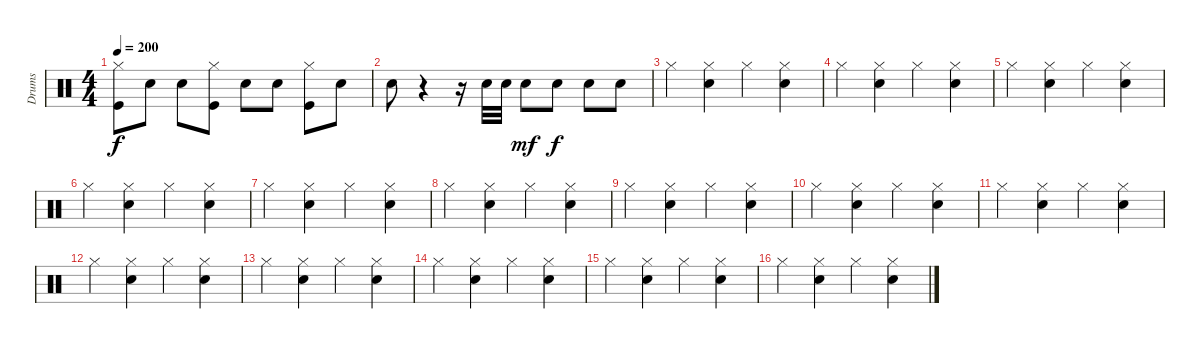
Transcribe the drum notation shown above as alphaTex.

\track ("Drums" "Drums") {instrument percussion}
\staff {score}
\articulation defaults
\ts (4 4)
\tempo 200
\clef neutral
\ks c
("Hi-Hat (closed)" "Kick (hit)").8{dy f} "Electric Snare (hit)".8 "Electric Snare (hit)".8 ("Hi-Hat (closed)" "Kick (hit)").8 "Electric Snare (hit)".8 "Electric Snare (hit)".8 ("Hi-Hat (closed)" "Kick (hit)").8 "Electric Snare (hit)".8 |
"Electric Snare (hit)".8 r.4 r.16 "Electric Snare (hit)".32 "Electric Snare (hit)".32 "Electric Snare (hit)".8{dy mf} "Electric Snare (hit)".8{dy f} "Electric Snare (hit)".8 "Electric Snare (hit)".8 |
"Hi-Hat (closed)".4 ("Snare (hit) 2" "Hi-Hat (closed)").4 "Hi-Hat (closed)".4 ("Snare (hit) 2" "Hi-Hat (closed)").4 |
"Hi-Hat (closed)".4 ("Snare (hit) 2" "Hi-Hat (closed)").4 "Hi-Hat (closed)".4 ("Snare (hit) 2" "Hi-Hat (closed)").4 |
"Hi-Hat (closed)".4 ("Snare (hit) 2" "Hi-Hat (closed)").4 "Hi-Hat (closed)".4 ("Snare (hit) 2" "Hi-Hat (closed)").4 |
"Hi-Hat (closed)".4 ("Snare (hit) 2" "Hi-Hat (closed)").4 "Hi-Hat (closed)".4 ("Snare (hit) 2" "Hi-Hat (closed)").4 |
"Hi-Hat (closed)".4 ("Snare (hit) 2" "Hi-Hat (closed)").4 "Hi-Hat (closed)".4 ("Snare (hit) 2" "Hi-Hat (closed)").4 |
"Hi-Hat (closed)".4 ("Snare (hit) 2" "Hi-Hat (closed)").4 "Hi-Hat (closed)".4 ("Snare (hit) 2" "Hi-Hat (closed)").4 |
"Hi-Hat (closed)".4 ("Snare (hit) 2" "Hi-Hat (closed)").4 "Hi-Hat (closed)".4 ("Snare (hit) 2" "Hi-Hat (closed)").4 |
"Hi-Hat (closed)".4 ("Snare (hit) 2" "Hi-Hat (closed)").4 "Hi-Hat (closed)".4 ("Snare (hit) 2" "Hi-Hat (closed)").4 |
"Hi-Hat (closed)".4 ("Snare (hit) 2" "Hi-Hat (closed)").4 "Hi-Hat (closed)".4 ("Snare (hit) 2" "Hi-Hat (closed)").4 |
"Hi-Hat (closed)".4 ("Snare (hit) 2" "Hi-Hat (closed)").4 "Hi-Hat (closed)".4 ("Snare (hit) 2" "Hi-Hat (closed)").4 |
"Hi-Hat (closed)".4 ("Snare (hit) 2" "Hi-Hat (closed)").4 "Hi-Hat (closed)".4 ("Snare (hit) 2" "Hi-Hat (closed)").4 |
"Hi-Hat (closed)".4 ("Snare (hit) 2" "Hi-Hat (closed)").4 "Hi-Hat (closed)".4 ("Snare (hit) 2" "Hi-Hat (closed)").4 |
"Hi-Hat (closed)".4 ("Snare (hit) 2" "Hi-Hat (closed)").4 "Hi-Hat (closed)".4 ("Snare (hit) 2" "Hi-Hat (closed)").4 |
"Hi-Hat (closed)".4 ("Snare (hit) 2" "Hi-Hat (closed)").4 "Hi-Hat (closed)".4 ("Snare (hit) 2" "Hi-Hat (closed)").4
